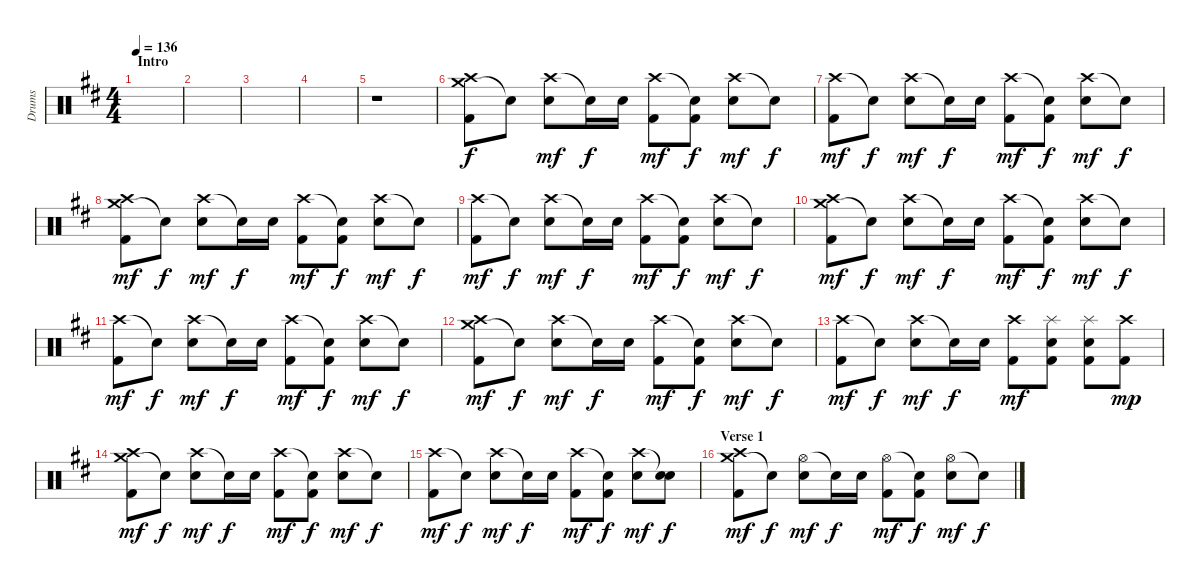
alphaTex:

\track ("Drums" "Drums") {instrument percussion}
\staff {score}
\articulation defaults
\ts (4 4)
\section ("" "Intro")
\tempo 136
\clef neutral
\ks d
|
|
|
|
r.1 |
("Crash medium (hit)" "Crash high (hit)" "Kick (hit) 2").8 "Snare (hit)"{t}.8{dy f} ("Crash high (hit)" "Electric Snare (hit)").8{dy mf} "Snare (hit)"{t}.16{dy f} "Electric Snare (hit)".16 ("Crash high (hit)" "Kick (hit) 2").8{dy mf} ("Snare (hit)"{t} "Kick (hit) 2").8{dy f} ("Crash high (hit)" "Electric Snare (hit)").8{dy mf} "Snare (hit)"{t}.8{dy f} |
("Crash high (hit)" "Kick (hit) 2").8{dy mf} "Snare (hit)"{t}.8{dy f} ("Crash high (hit)" "Electric Snare (hit)").8{dy mf} "Snare (hit)"{t}.16{dy f} "Electric Snare (hit)".16 ("Crash high (hit)" "Kick (hit) 2").8{dy mf} ("Snare (hit)"{t} "Kick (hit) 2").8{dy f} ("Crash high (hit)" "Electric Snare (hit)").8{dy mf} "Snare (hit)"{t}.8{dy f} |
("Crash medium (hit)" "Crash high (hit)" "Kick (hit) 2").8{dy mf} "Snare (hit)"{t}.8{dy f} ("Crash high (hit)" "Electric Snare (hit)").8{dy mf} "Snare (hit)"{t}.16{dy f} "Electric Snare (hit)".16 ("Crash high (hit)" "Kick (hit) 2").8{dy mf} ("Snare (hit)"{t} "Kick (hit) 2").8{dy f} ("Crash high (hit)" "Electric Snare (hit)").8{dy mf} "Snare (hit)"{t}.8{dy f} |
("Crash high (hit)" "Kick (hit) 2").8{dy mf} "Snare (hit)"{t}.8{dy f} ("Crash high (hit)" "Electric Snare (hit)").8{dy mf} "Snare (hit)"{t}.16{dy f} "Electric Snare (hit)".16 ("Crash high (hit)" "Kick (hit) 2").8{dy mf} ("Snare (hit)"{t} "Kick (hit) 2").8{dy f} ("Crash high (hit)" "Electric Snare (hit)").8{dy mf} "Snare (hit)"{t}.8{dy f} |
("Crash medium (hit)" "Crash high (hit)" "Kick (hit) 2").8{dy mf} "Snare (hit)"{t}.8{dy f} ("Crash high (hit)" "Electric Snare (hit)").8{dy mf} "Snare (hit)"{t}.16{dy f} "Electric Snare (hit)".16 ("Crash high (hit)" "Kick (hit) 2").8{dy mf} ("Snare (hit)"{t} "Kick (hit) 2").8{dy f} ("Crash high (hit)" "Electric Snare (hit)").8{dy mf} "Snare (hit)"{t}.8{dy f} |
("Crash high (hit)" "Kick (hit) 2").8{dy mf} "Snare (hit)"{t}.8{dy f} ("Crash high (hit)" "Electric Snare (hit)").8{dy mf} "Snare (hit)"{t}.16{dy f} "Electric Snare (hit)".16 ("Crash high (hit)" "Kick (hit) 2").8{dy mf} ("Snare (hit)"{t} "Kick (hit) 2").8{dy f} ("Crash high (hit)" "Electric Snare (hit)").8{dy mf} "Snare (hit)"{t}.8{dy f} |
("Crash medium (hit)" "Crash high (hit)" "Kick (hit) 2").8{dy mf} "Snare (hit)"{t}.8{dy f} ("Crash high (hit)" "Electric Snare (hit)").8{dy mf} "Snare (hit)"{t}.16{dy f} "Electric Snare (hit)".16 ("Crash high (hit)" "Kick (hit) 2").8{dy mf} ("Snare (hit)"{t} "Kick (hit) 2").8{dy f} ("Crash high (hit)" "Electric Snare (hit)").8{dy mf} "Snare (hit)"{t}.8{dy f} |
("Crash high (hit)" "Kick (hit) 2").8{dy mf} "Snare (hit)"{t}.8{dy f} ("Crash high (hit)" "Electric Snare (hit)").8{dy mf} "Snare (hit)"{t}.16{dy f} "Electric Snare (hit)".16 ("Crash high (hit)" "Kick (hit) 2").8{dy mf} ("Splash (hit)" "Electric Snare (hit)" "Kick (hit) 2").8 ("Splash (hit)" "Electric Snare (hit)" "Kick (hit) 2").8 ("Crash high (hit)" "Kick (hit) 2").8{dy mp} |
("Crash medium (hit)" "Crash high (hit)" "Kick (hit) 2").8{dy mf} "Snare (hit)"{t}.8{dy f} ("Crash high (hit)" "Electric Snare (hit)").8{dy mf} "Snare (hit)"{t}.16{dy f} "Electric Snare (hit)".16 ("Crash high (hit)" "Kick (hit) 2").8{dy mf} ("Snare (hit)"{t} "Kick (hit) 2").8{dy f} ("Crash high (hit)" "Electric Snare (hit)").8{dy mf} "Snare (hit)"{t}.8{dy f} |
("Crash high (hit)" "Kick (hit) 2").8{dy mf} "Snare (hit)"{t}.8{dy f} ("Crash high (hit)" "Electric Snare (hit)").8{dy mf} "Snare (hit)"{t}.16{dy f} "Electric Snare (hit)".16 ("Crash high (hit)" "Kick (hit) 2").8{dy mf} ("Snare (hit)"{t} "Kick (hit) 2").8{dy f} ("Crash high (hit)" "Electric Snare (hit)").8{dy mf} ("Snare (hit)"{t} "Electric Snare (hit)").8{dy f} |
\section ("" "Verse 1")
("Crash medium (hit)" "Crash high (hit)" "Kick (hit) 2").8{dy mf} "Snare (hit)"{t}.8{dy f} ("Hi-Hat (open)" "Electric Snare (hit)").8{dy mf} "Snare (hit)"{t}.16{dy f} "Electric Snare (hit)".16 ("Hi-Hat (open)" "Kick (hit) 2").8{dy mf} ("Snare (hit)"{t} "Kick (hit) 2").8{dy f} ("Hi-Hat (open)" "Electric Snare (hit)").8{dy mf} "Snare (hit)"{t}.8{dy f}
